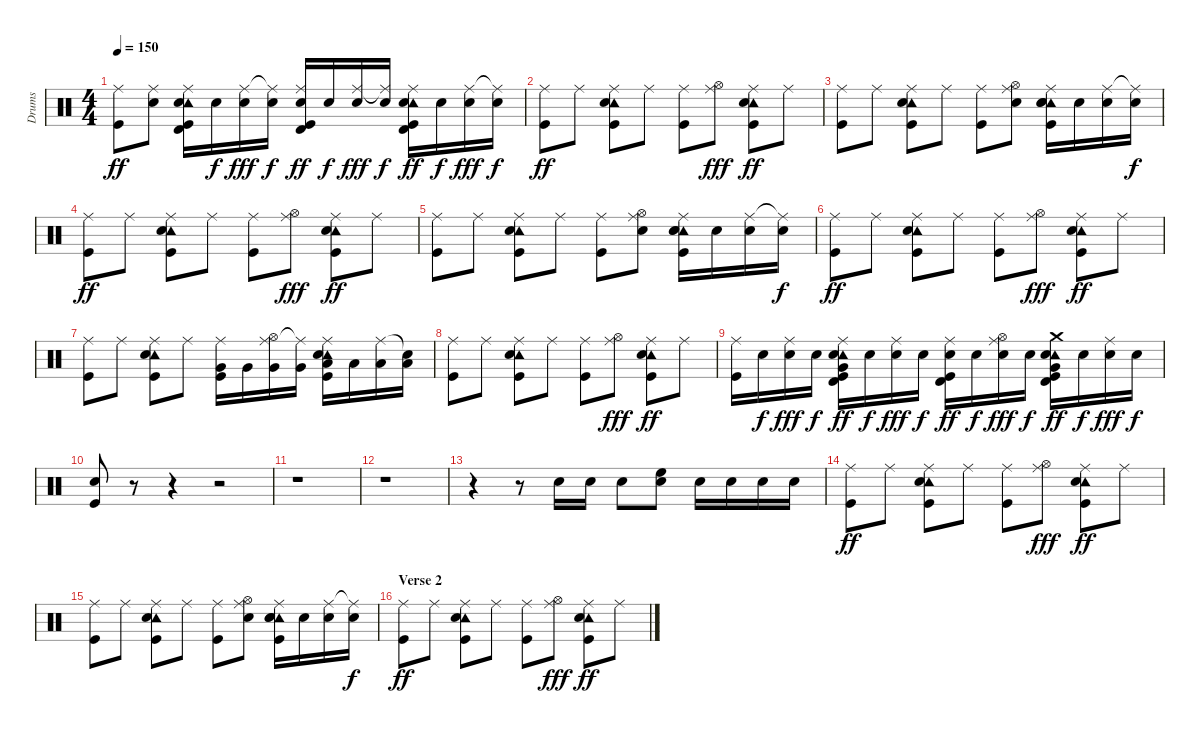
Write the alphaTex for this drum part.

\track ("Drums" "Drums") {instrument percussion}
\staff {score}
\articulation defaults
\ts (4 4)
\tempo 150
\clef neutral
\ks c
("Ride (middle)" "Kick (hit)").8{dy ff} ("Ride (middle)" "Snare (hit) 2").8 ("Timbale high (hit)" "Ride (middle)" "Tambourine (hit)" "Snare (hit) 2" "Kick (hit)").16 "Snare (hit) 2".16{dy f} ("Ride (middle)" "Snare (hit) 2").16{dy fff} ("Ride (middle)"{t} "Snare (hit) 2").16{dy f} ("Timbale high (hit)" "Ride (middle)" "Snare (hit) 2" "Kick (hit)").16{dy ff} "Snare (hit) 2".16{dy f} ("Ride (middle)" "Snare (hit) 2").16{dy fff} ("Ride (middle)"{t} "Snare (hit) 2").16{dy f} ("Timbale high (hit)" "Ride (middle)" "Tambourine (hit)" "Snare (hit) 2" "Kick (hit)").16{dy ff} "Snare (hit) 2".16{dy f} ("Ride (middle)" "Snare (hit) 2").16{dy fff} ("Ride (middle)"{t} "Snare (hit) 2").16{dy f} |
("Ride (middle)" "Kick (hit)").8{dy ff} "Ride (middle)".8 ("Ride (middle)" "Tambourine (hit)" "Electric Snare (hit)" "Kick (hit)").8 "Ride (middle)".8 ("Ride (middle)" "Kick (hit)").8 ("Ride (middle)" "Hi-Hat (open)").8{dy fff} ("Ride (middle)" "Tambourine (hit)" "Electric Snare (hit)" "Kick (hit)").8{dy ff} "Ride (middle)".8 |
("Ride (middle)" "Kick (hit)").8 "Ride (middle)".8 ("Ride (middle)" "Tambourine (hit)" "Electric Snare (hit)" "Kick (hit)").8 "Ride (middle)".8 ("Ride (middle)" "Kick (hit)").8 ("Ride (middle)" "Hi-Hat (open)" "Snare (hit) 2").8 ("Ride (middle)" "Tambourine (hit)" "Electric Snare (hit)" "Snare (hit) 2" "Kick (hit)").16 "Snare (hit) 2".16 ("Ride (middle)" "Snare (hit) 2").16 ("Ride (middle)"{t} "Snare (hit) 2").16{dy f} |
("Ride (middle)" "Kick (hit)").8{dy ff} "Ride (middle)".8 ("Ride (middle)" "Tambourine (hit)" "Electric Snare (hit)" "Kick (hit)").8 "Ride (middle)".8 ("Ride (middle)" "Kick (hit)").8 ("Ride (middle)" "Hi-Hat (open)").8{dy fff} ("Ride (middle)" "Tambourine (hit)" "Electric Snare (hit)" "Kick (hit)").8{dy ff} "Ride (middle)".8 |
("Ride (middle)" "Kick (hit)").8 "Ride (middle)".8 ("Ride (middle)" "Tambourine (hit)" "Electric Snare (hit)" "Kick (hit)").8 "Ride (middle)".8 ("Ride (middle)" "Kick (hit)").8 ("Ride (middle)" "Hi-Hat (open)" "Snare (hit) 2").8 ("Ride (middle)" "Tambourine (hit)" "Electric Snare (hit)" "Snare (hit) 2" "Kick (hit)").16 "Snare (hit) 2".16 ("Ride (middle)" "Snare (hit) 2").16 ("Ride (middle)"{t} "Snare (hit) 2").16{dy f} |
("Ride (middle)" "Kick (hit)").8{dy ff} "Ride (middle)".8 ("Ride (middle)" "Tambourine (hit)" "Electric Snare (hit)" "Kick (hit)").8 "Ride (middle)".8 ("Ride (middle)" "Kick (hit)").8 ("Ride (middle)" "Hi-Hat (open)").8{dy fff} ("Ride (middle)" "Tambourine (hit)" "Electric Snare (hit)" "Kick (hit)").8{dy ff} "Ride (middle)".8 |
("Ride (middle)" "Kick (hit)").8 "Ride (middle)".8 ("Ride (middle)" "Tambourine (hit)" "Electric Snare (hit)" "Kick (hit)").8 "Ride (middle)".8 ("Ride (middle)" "Very Low Tom (hit)" "Kick (hit)").16 "Very Low Tom (hit)".16 ("Ride (middle)" "Hi-Hat (open)" "Very Low Tom (hit)").16 ("Ride (middle)"{t} "Very Low Tom (hit)").16 ("Ride (middle)" "Tambourine (hit)" "Electric Snare (hit)" "Low Floor Tom (hit)" "Kick (hit)").16 "Low Floor Tom (hit)".16 ("Ride (middle)" "Low Floor Tom (hit)").16 ("Snare (hit)"{t} "Low Floor Tom (hit)").16 |
("Ride (middle)" "Kick (hit)").8 "Ride (middle)".8 ("Ride (middle)" "Tambourine (hit)" "Electric Snare (hit)" "Kick (hit)").8 "Ride (middle)".8 ("Ride (middle)" "Kick (hit)").8 ("Ride (middle)" "Hi-Hat (open)").8{dy fff} ("Ride (middle)" "Tambourine (hit)" "Electric Snare (hit)" "Kick (hit)").8{dy ff} "Ride (middle)".8 |
("Ride (middle)" "Kick (hit)").16 "Snare (hit) 2".16{dy f} ("Ride (middle)" "Snare (hit) 2").16{dy fff} "Snare (hit) 2".16{dy f} ("Timbale high (hit)" "Ride (middle)" "Tambourine (hit)" "Very Low Tom (hit)" "Snare (hit) 2" "Kick (hit)").16{dy ff} "Snare (hit) 2".16{dy f} ("Ride (middle)" "Snare (hit) 2").16{dy fff} "Snare (hit) 2".16{dy f} ("Timbale high (hit)" "Ride (middle)" "Snare (hit) 2" "Kick (hit)").16{dy ff} "Snare (hit) 2".16{dy f} ("Ride (middle)" "Hi-Hat (open)" "Snare (hit) 2").16{dy fff} "Snare (hit) 2".16{dy f} ("Timbale high (hit)" "Crash medium (hit)" "Tambourine (hit)" "Very Low Tom (hit)" "Snare (hit) 2" "Kick (hit)").16{dy ff} "Snare (hit) 2".16{dy f} ("Ride (middle)" "Snare (hit) 2").16{dy fff} "Snare (hit) 2".16{dy f} |
("Electric Snare (hit)" "Kick (hit)").8 r.8 r.4 r.2 |
r.1 |
r.1 |
r.4 r.8 "Snare (hit) 2".16 "Snare (hit) 2".16 "Snare (hit) 2".8 ("High Floor Tom (hit)" "Snare (hit) 2").8 "Snare (hit) 2".16 "Snare (hit) 2".16 "Snare (hit) 2".16 "Snare (hit) 2".16 |
("Ride (middle)" "Kick (hit)").8{dy ff} "Ride (middle)".8 ("Ride (middle)" "Tambourine (hit)" "Electric Snare (hit)" "Kick (hit)").8 "Ride (middle)".8 ("Ride (middle)" "Kick (hit)").8 ("Ride (middle)" "Hi-Hat (open)").8{dy fff} ("Ride (middle)" "Tambourine (hit)" "Electric Snare (hit)" "Kick (hit)").8{dy ff} "Ride (middle)".8 |
("Ride (middle)" "Kick (hit)").8 "Ride (middle)".8 ("Ride (middle)" "Tambourine (hit)" "Electric Snare (hit)" "Kick (hit)").8 "Ride (middle)".8 ("Ride (middle)" "Kick (hit)").8 ("Ride (middle)" "Hi-Hat (open)" "Snare (hit) 2").8 ("Ride (middle)" "Tambourine (hit)" "Electric Snare (hit)" "Snare (hit) 2" "Kick (hit)").16 "Snare (hit) 2".16 ("Ride (middle)" "Snare (hit) 2").16 ("Ride (middle)"{t} "Snare (hit) 2").16{dy f} |
\section ("" "Verse 2")
("Ride (middle)" "Kick (hit)").8{dy ff} "Ride (middle)".8 ("Ride (middle)" "Tambourine (hit)" "Electric Snare (hit)" "Kick (hit)").8 "Ride (middle)".8 ("Ride (middle)" "Kick (hit)").8 ("Ride (middle)" "Hi-Hat (open)").8{dy fff} ("Ride (middle)" "Tambourine (hit)" "Electric Snare (hit)" "Kick (hit)").8{dy ff} "Ride (middle)".8
